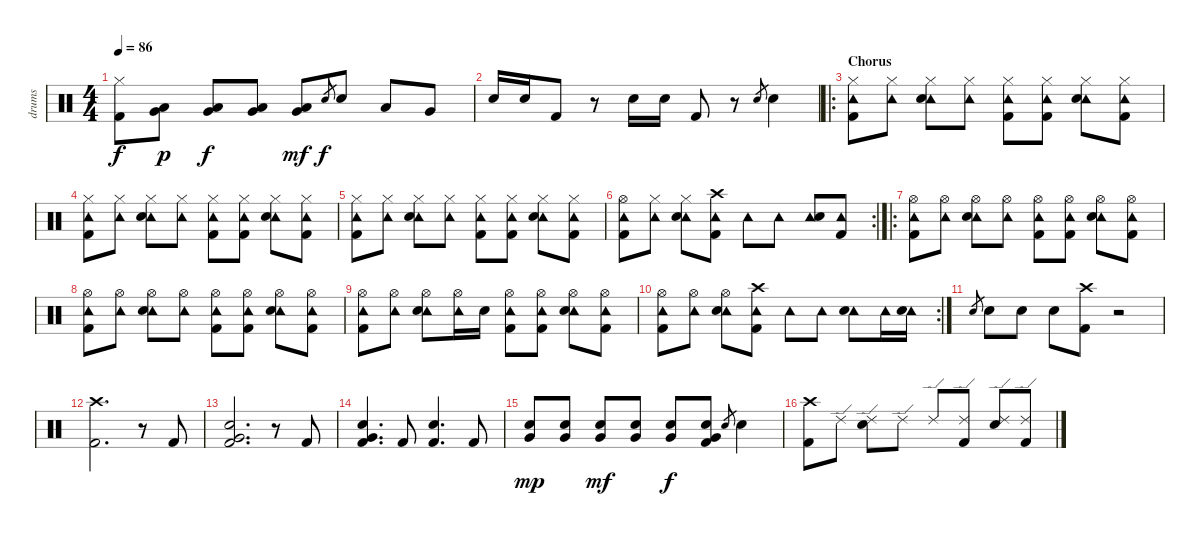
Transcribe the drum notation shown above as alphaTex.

\track ("drums" "drums") {instrument percussion}
\staff {score}
\articulation defaults
\ts (4 4)
\tempo 86
\clef neutral
\ks c
("Hi-Hat (closed)" "Kick (hit) 2").8{dy f} ("Low Tom (hit)" "Very Low Tom (hit)").8{dy p} ("Low Tom (hit)" "Very Low Tom (hit)").8{dy f} ("Very Low Tom (hit)" "Low Tom (hit)").8 ("Low Tom (hit)" "Very Low Tom (hit)").8{dy mf} "Electric Snare (hit)".8{gr dy f} "Electric Snare (hit)".8 "Low Tom (hit)".8 "Very Low Tom (hit)".8 |
"Electric Snare (hit)".16 "Electric Snare (hit)".16 "Kick (hit) 2".8 r.8 "Electric Snare (hit)".16 "Electric Snare (hit)".16 "Kick (hit) 2".8 r.8 "Electric Snare (hit)".8{gr} "Electric Snare (hit)".4 |
\ro
\section ("" "Chorus")
("Hi-Hat (closed)" "Tambourine (hit)" "Kick (hit) 2").8 ("Hi-Hat (closed)" "Tambourine (hit)").8 ("Hi-Hat (closed)" "Tambourine (hit)" "Electric Snare (hit)").8 ("Hi-Hat (closed)" "Tambourine (hit)").8 ("Hi-Hat (closed)" "Tambourine (hit)" "Kick (hit) 2").8 ("Hi-Hat (closed)" "Tambourine (hit)" "Kick (hit) 2").8 ("Hi-Hat (closed)" "Tambourine (hit)" "Electric Snare (hit)").8 ("Hi-Hat (closed)" "Tambourine (hit)" "Kick (hit) 2").8 |
("Hi-Hat (closed)" "Tambourine (hit)" "Kick (hit) 2").8 ("Hi-Hat (closed)" "Tambourine (hit)").8 ("Hi-Hat (closed)" "Tambourine (hit)" "Electric Snare (hit)").8 ("Hi-Hat (closed)" "Tambourine (hit)").8 ("Hi-Hat (closed)" "Tambourine (hit)" "Kick (hit) 2").8 ("Hi-Hat (closed)" "Tambourine (hit)" "Kick (hit) 2").8 ("Hi-Hat (closed)" "Tambourine (hit)" "Electric Snare (hit)").8 ("Hi-Hat (closed)" "Tambourine (hit)" "Kick (hit) 2").8 |
("Hi-Hat (closed)" "Tambourine (hit)" "Kick (hit) 2").8 ("Hi-Hat (closed)" "Tambourine (hit)").8 ("Hi-Hat (closed)" "Tambourine (hit)" "Electric Snare (hit)").8 ("Hi-Hat (closed)" "Tambourine (hit)").8 ("Hi-Hat (closed)" "Tambourine (hit)" "Kick (hit) 2").8 ("Hi-Hat (closed)" "Tambourine (hit)" "Kick (hit) 2").8 ("Hi-Hat (closed)" "Tambourine (hit)" "Electric Snare (hit)").8 ("Hi-Hat (closed)" "Tambourine (hit)" "Kick (hit) 2").8 |
\rc 2
("Hi-Hat (open)" "Tambourine (hit)" "Kick (hit) 2").8 ("Hi-Hat (closed)" "Tambourine (hit)").8 ("Hi-Hat (closed)" "Tambourine (hit)" "Electric Snare (hit)").8 ("Crash high (hit)" "Tambourine (hit)" "Kick (hit) 2").8 "Tambourine (hit)".8 "Tambourine (hit)".8 ("Tambourine (hit)" "Electric Snare (hit)").8 ("Tambourine (hit)" "Kick (hit) 2").8 |
\ro
("Hi-Hat (open)" "Tambourine (hit)" "Kick (hit) 2").8 ("Hi-Hat (open)" "Tambourine (hit)").8 ("Hi-Hat (open)" "Tambourine (hit)" "Electric Snare (hit)").8 ("Hi-Hat (open)" "Tambourine (hit)").8 ("Hi-Hat (open)" "Tambourine (hit)" "Kick (hit) 2").8 ("Hi-Hat (open)" "Tambourine (hit)" "Kick (hit) 2").8 ("Hi-Hat (open)" "Tambourine (hit)" "Electric Snare (hit)").8 ("Hi-Hat (open)" "Tambourine (hit)" "Kick (hit) 2").8 |
("Hi-Hat (open)" "Tambourine (hit)" "Kick (hit) 2").8 ("Hi-Hat (open)" "Tambourine (hit)").8 ("Hi-Hat (open)" "Tambourine (hit)" "Electric Snare (hit)").8 ("Hi-Hat (open)" "Tambourine (hit)").8 ("Hi-Hat (open)" "Tambourine (hit)" "Kick (hit) 2").8 ("Hi-Hat (open)" "Tambourine (hit)" "Kick (hit) 2").8 ("Hi-Hat (open)" "Tambourine (hit)" "Electric Snare (hit)").8 ("Hi-Hat (open)" "Tambourine (hit)" "Kick (hit) 2").8 |
("Hi-Hat (open)" "Tambourine (hit)" "Kick (hit) 2").8 ("Hi-Hat (open)" "Tambourine (hit)").8 ("Hi-Hat (open)" "Tambourine (hit)" "Electric Snare (hit)").8 ("Hi-Hat (open)" "Tambourine (hit)").16 "Electric Snare (hit)".16 ("Hi-Hat (open)" "Tambourine (hit)" "Kick (hit) 2").8 ("Hi-Hat (open)" "Tambourine (hit)" "Kick (hit) 2").8 ("Hi-Hat (open)" "Tambourine (hit)" "Electric Snare (hit)").8 ("Hi-Hat (open)" "Tambourine (hit)" "Kick (hit) 2").8 |
\rc 2
("Hi-Hat (open)" "Tambourine (hit)" "Kick (hit) 2").8 ("Hi-Hat (open)" "Tambourine (hit)").8 ("Hi-Hat (open)" "Tambourine (hit)" "Electric Snare (hit)").8 ("Crash high (hit)" "Tambourine (hit)" "Kick (hit) 2").8 "Tambourine (hit)".8 "Tambourine (hit)".8 ("Tambourine (hit)" "Electric Snare (hit)").8 "Tambourine (hit)".16 ("Tambourine (hit)" "Electric Snare (hit)").16 |
"Electric Snare (hit)".8{gr} "Electric Snare (hit)".8 "Electric Snare (hit)".8 "Electric Snare (hit)".8 ("Crash high (hit)" "Kick (hit) 2").8 r.2 |
("Crash high (hit)" "Kick (hit) 2").2{d} r.8 "Kick (hit) 2".8 |
("Electric Snare (hit)" "Very Low Tom (hit)" "Kick (hit) 2").2{d} r.8 "Kick (hit) 2".8 |
("Electric Snare (hit)" "Very Low Tom (hit)" "Kick (hit) 2").4{d} "Kick (hit) 2".8 ("Electric Snare (hit)" "Kick (hit) 2").4{d} "Kick (hit) 2".8 |
("Electric Snare (hit)" "Very Low Tom (hit)").8{dy mp} ("Electric Snare (hit)" "Very Low Tom (hit)").8 ("Electric Snare (hit)" "Very Low Tom (hit)").8{dy mf} ("Electric Snare (hit)" "Very Low Tom (hit)").8 ("Electric Snare (hit)" "Very Low Tom (hit)").8{dy f} ("Electric Snare (hit)" "Very Low Tom (hit)" "Kick (hit) 2").8 "Electric Snare (hit)".8{gr} "Electric Snare (hit)".4 |
("Crash high (hit)" "Kick (hit) 2").8 "Ride (edge) 2".8 ("Ride (edge) 2" "Electric Snare (hit)").8 "Ride (edge) 2".8 "Ride (edge) 2".8 ("Ride (edge) 2" "Kick (hit) 2").8 ("Ride (edge) 2" "Electric Snare (hit)").8 ("Ride (edge) 2" "Kick (hit) 2").8
